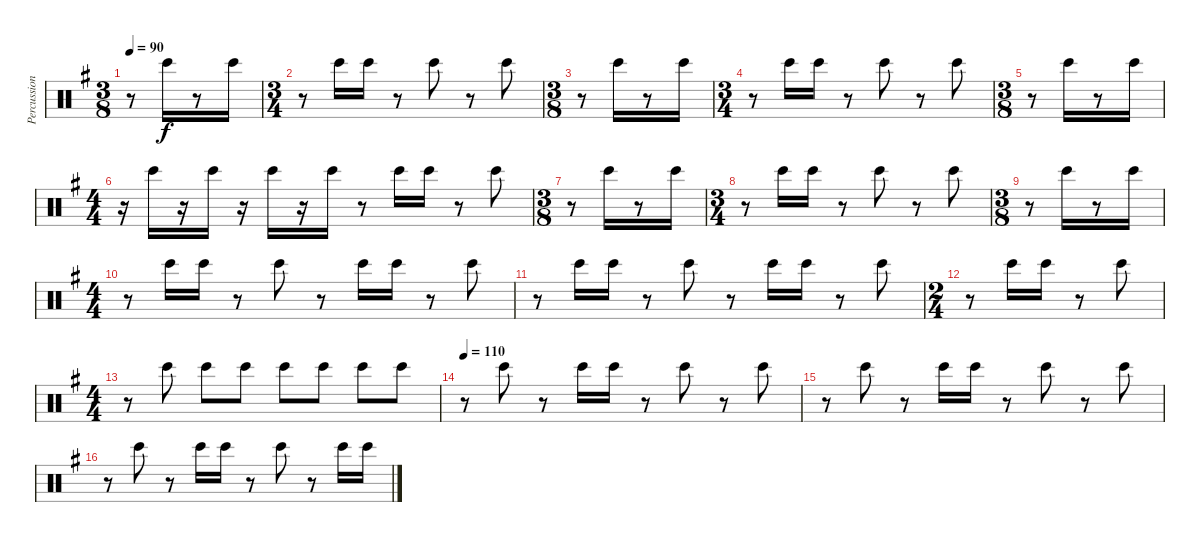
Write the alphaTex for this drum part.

\track ("Percussion" "Percussion") {instrument percussion}
\staff {score}
\articulation defaults
\ts (3 8)
\tempo 90
\clef neutral
\ks g
r.8{dy f} "Bongo High (hit)".16 r.8 "Bongo High (hit)".16 |
\ts (3 4)
r.8 "Bongo High (hit)".16 "Bongo High (hit)".16 r.8 "Bongo High (hit)".8 r.8 "Bongo High (hit)".8 |
\ts (3 8)
r.8 "Bongo High (hit)".16 r.8 "Bongo High (hit)".16 |
\ts (3 4)
r.8 "Bongo High (hit)".16 "Bongo High (hit)".16 r.8 "Bongo High (hit)".8 r.8 "Bongo High (hit)".8 |
\ts (3 8)
r.8 "Bongo High (hit)".16 r.8 "Bongo High (hit)".16 |
\ts (4 4)
r.16 "Bongo High (hit)".16 r.16 "Bongo High (hit)".16 r.16 "Bongo High (hit)".16 r.16 "Bongo High (hit)".16 r.8 "Bongo High (hit)".16 "Bongo High (hit)".16 r.8 "Bongo High (hit)".8 |
\ts (3 8)
r.8 "Bongo High (hit)".16 r.8 "Bongo High (hit)".16 |
\ts (3 4)
r.8 "Bongo High (hit)".16 "Bongo High (hit)".16 r.8 "Bongo High (hit)".8 r.8 "Bongo High (hit)".8 |
\ts (3 8)
r.8 "Bongo High (hit)".16 r.8 "Bongo High (hit)".16 |
\ts (4 4)
r.8 "Bongo High (hit)".16 "Bongo High (hit)".16 r.8 "Bongo High (hit)".8 r.8 "Bongo High (hit)".16 "Bongo High (hit)".16 r.8 "Bongo High (hit)".8 |
r.8 "Bongo High (hit)".16 "Bongo High (hit)".16 r.8 "Bongo High (hit)".8 r.8 "Bongo High (hit)".16 "Bongo High (hit)".16 r.8 "Bongo High (hit)".8 |
\ts (2 4)
r.8 "Bongo High (hit)".16 "Bongo High (hit)".16 r.8 "Bongo High (hit)".8 |
\ts (4 4)
r.8 "Bongo High (hit)".8 "Bongo High (hit)".8 "Bongo High (hit)".8 "Bongo High (hit)".8 "Bongo High (hit)".8 "Bongo High (hit)".8 "Bongo High (hit)".8 |
\tempo 110
r.8 "Bongo High (hit)".8 r.8 "Bongo High (hit)".16 "Bongo High (hit)".16 r.8 "Bongo High (hit)".8 r.8 "Bongo High (hit)".8 |
r.8 "Bongo High (hit)".8 r.8 "Bongo High (hit)".16 "Bongo High (hit)".16 r.8 "Bongo High (hit)".8 r.8 "Bongo High (hit)".8 |
r.8 "Bongo High (hit)".8 r.8 "Bongo High (hit)".16 "Bongo High (hit)".16 r.8 "Bongo High (hit)".8 r.8 "Bongo High (hit)".16 "Bongo High (hit)".16
